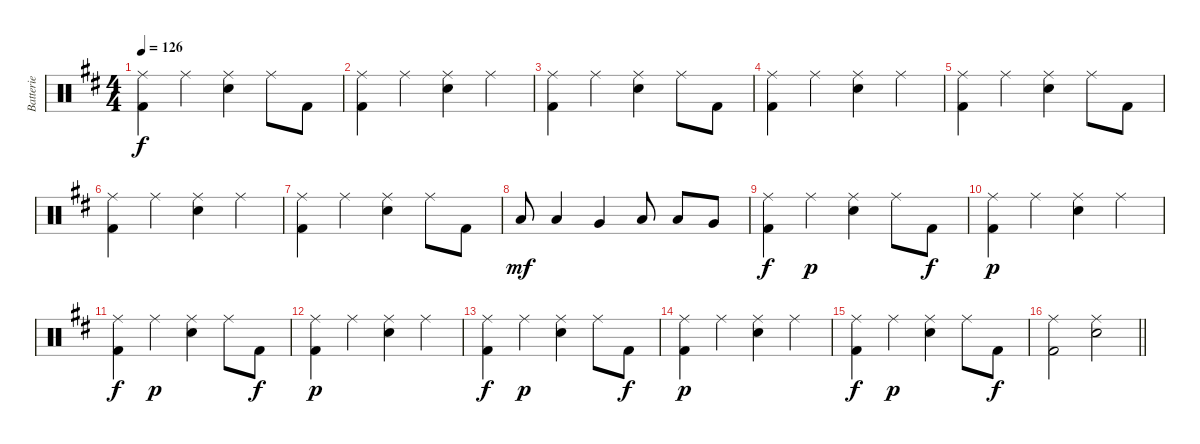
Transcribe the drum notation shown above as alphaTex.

\track ("Batterie" "Batterie") {instrument percussion}
\staff {score}
\articulation defaults
\ts (4 4)
\tempo 126
\clef neutral
\ks d
("Ride (middle)" "Kick (hit) 2").4{dy f} "Ride (middle)".4 ("Ride (middle)" "Snare (hit) 2").4 "Ride (middle)".8 "Kick (hit) 2".8 |
("Ride (middle)" "Kick (hit) 2").4 "Ride (middle)".4 ("Ride (middle)" "Snare (hit) 2").4 "Ride (middle)".4 |
("Ride (middle)" "Kick (hit) 2").4 "Ride (middle)".4 ("Ride (middle)" "Snare (hit) 2").4 "Ride (middle)".8 "Kick (hit) 2".8 |
("Ride (middle)" "Kick (hit) 2").4 "Ride (middle)".4 ("Ride (middle)" "Snare (hit) 2").4 "Ride (middle)".4 |
("Ride (middle)" "Kick (hit) 2").4 "Ride (middle)".4 ("Ride (middle)" "Snare (hit) 2").4 "Ride (middle)".8 "Kick (hit) 2".8 |
("Ride (middle)" "Kick (hit) 2").4 "Ride (middle)".4 ("Ride (middle)" "Snare (hit) 2").4 "Ride (middle)".4 |
("Ride (middle)" "Kick (hit) 2").4 "Ride (middle)".4 ("Ride (middle)" "Snare (hit) 2").4 "Ride (middle)".8 "Kick (hit) 2".8 |
"Low Tom (hit)".8{dy mf} "Low Tom (hit)".4 "Very Low Tom (hit)".4 "Low Floor Tom (hit)".8 "Low Floor Tom (hit)".8 "Very Low Tom (hit)".8 |
("Ride (middle)" "Kick (hit) 2").4{dy f} "Ride (middle)".4{dy p} ("Ride (middle)" "Snare (hit) 2").4 "Ride (middle)".8 "Kick (hit) 2".8{dy f} |
("Ride (middle)" "Kick (hit) 2").4{dy p} "Ride (middle)".4 ("Ride (middle)" "Snare (hit) 2").4 "Ride (middle)".4 |
("Ride (middle)" "Kick (hit) 2").4{dy f} "Ride (middle)".4{dy p} ("Ride (middle)" "Snare (hit) 2").4 "Ride (middle)".8 "Kick (hit) 2".8{dy f} |
("Ride (middle)" "Kick (hit) 2").4{dy p} "Ride (middle)".4 ("Ride (middle)" "Snare (hit) 2").4 "Ride (middle)".4 |
("Ride (middle)" "Kick (hit) 2").4{dy f} "Ride (middle)".4{dy p} ("Ride (middle)" "Snare (hit) 2").4 "Ride (middle)".8 "Kick (hit) 2".8{dy f} |
("Ride (middle)" "Kick (hit) 2").4{dy p} "Ride (middle)".4 ("Ride (middle)" "Snare (hit) 2").4 "Ride (middle)".4 |
("Ride (middle)" "Kick (hit) 2").4{dy f} "Ride (middle)".4{dy p} ("Ride (middle)" "Snare (hit) 2").4 "Ride (middle)".8 "Kick (hit) 2".8{dy f} |
\barLineRight lightlight
("Ride (middle)" "Kick (hit) 2").2 ("Ride (middle)" "Snare (hit) 2").2
